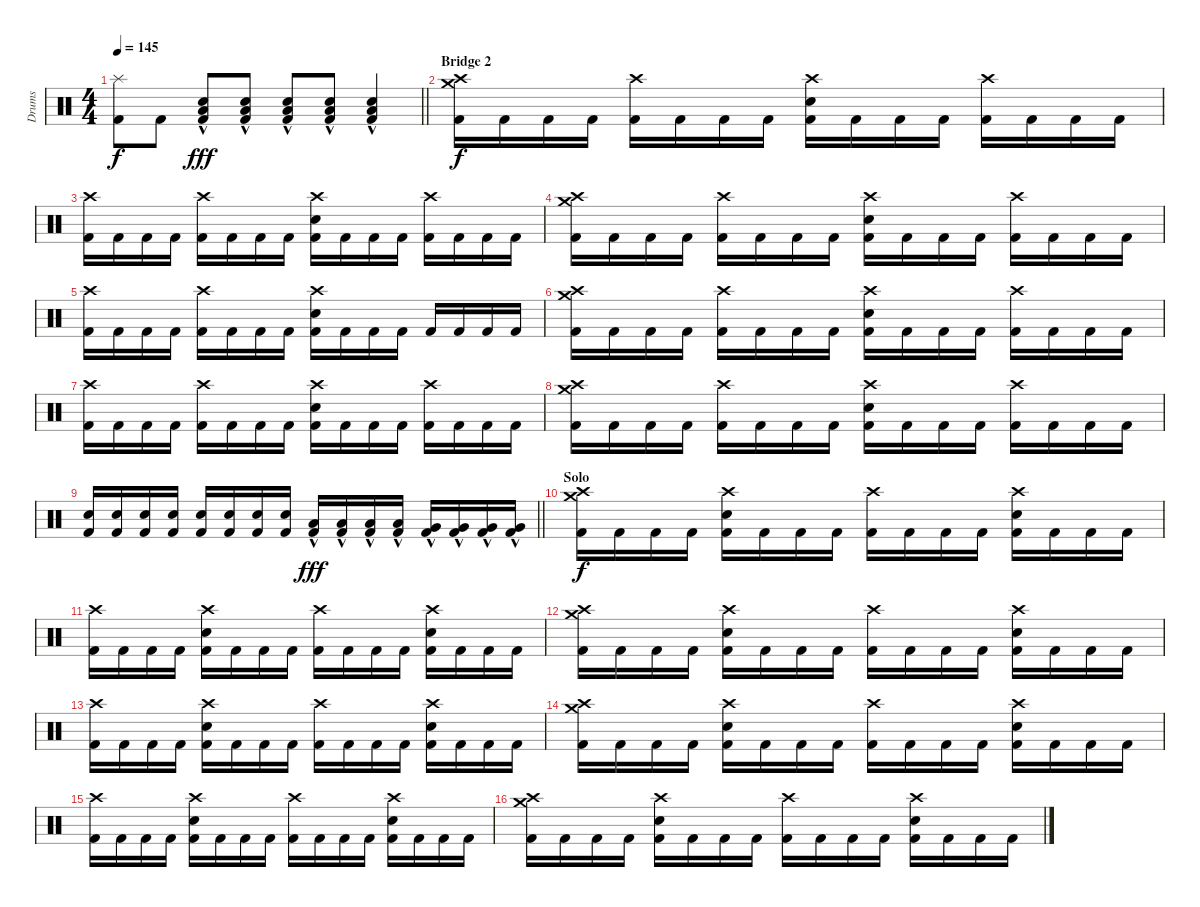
\track ("Drums" "Drums") {instrument percussion}
\staff {score}
\articulation defaults
\ts (4 4)
\tempo 145
\clef neutral
\barLineRight lightlight
\ks c
("Splash (hit)" "Kick (hit) 2").8{dy f} "Kick (hit) 2".8 ("Electric Snare (hit)" "Low Floor Tom (hit)"{hac} "Kick (hit) 2").8{dy fff} ("Electric Snare (hit)" "Low Floor Tom (hit)"{hac} "Kick (hit) 2").8 ("Electric Snare (hit)" "Low Floor Tom (hit)"{hac} "Kick (hit) 2").8 ("Electric Snare (hit)" "Low Floor Tom (hit)"{hac} "Kick (hit) 2").8 ("Electric Snare (hit)" "Low Floor Tom (hit)"{hac} "Kick (hit) 2").4 |
\section ("" "Bridge 2")
("Crash high (hit)" "Crash medium (hit)" "Kick (hit) 2").16{dy f} "Kick (hit) 2".16 "Kick (hit) 2".16 "Kick (hit) 2".16 ("Crash high (hit)" "Kick (hit) 2").16 "Kick (hit) 2".16 "Kick (hit) 2".16 "Kick (hit) 2".16 ("Crash high (hit)" "Electric Snare (hit)" "Kick (hit) 2").16 "Kick (hit) 2".16 "Kick (hit) 2".16 "Kick (hit) 2".16 ("Crash high (hit)" "Kick (hit) 2").16 "Kick (hit) 2".16 "Kick (hit) 2".16 "Kick (hit) 2".16 |
("Crash high (hit)" "Kick (hit) 2").16 "Kick (hit) 2".16 "Kick (hit) 2".16 "Kick (hit) 2".16 ("Crash high (hit)" "Kick (hit) 2").16 "Kick (hit) 2".16 "Kick (hit) 2".16 "Kick (hit) 2".16 ("Crash high (hit)" "Electric Snare (hit)" "Kick (hit) 2").16 "Kick (hit) 2".16 "Kick (hit) 2".16 "Kick (hit) 2".16 ("Crash high (hit)" "Kick (hit) 2").16 "Kick (hit) 2".16 "Kick (hit) 2".16 "Kick (hit) 2".16 |
("Crash high (hit)" "Crash medium (hit)" "Kick (hit) 2").16 "Kick (hit) 2".16 "Kick (hit) 2".16 "Kick (hit) 2".16 ("Crash high (hit)" "Kick (hit) 2").16 "Kick (hit) 2".16 "Kick (hit) 2".16 "Kick (hit) 2".16 ("Crash high (hit)" "Electric Snare (hit)" "Kick (hit) 2").16 "Kick (hit) 2".16 "Kick (hit) 2".16 "Kick (hit) 2".16 ("Crash high (hit)" "Kick (hit) 2").16 "Kick (hit) 2".16 "Kick (hit) 2".16 "Kick (hit) 2".16 |
("Crash high (hit)" "Kick (hit) 2").16 "Kick (hit) 2".16 "Kick (hit) 2".16 "Kick (hit) 2".16 ("Crash high (hit)" "Kick (hit) 2").16 "Kick (hit) 2".16 "Kick (hit) 2".16 "Kick (hit) 2".16 ("Crash high (hit)" "Electric Snare (hit)" "Kick (hit) 2").16 "Kick (hit) 2".16 "Kick (hit) 2".16 "Kick (hit) 2".16 "Kick (hit) 2".16 "Kick (hit) 2".16 "Kick (hit) 2".16 "Kick (hit) 2".16 |
("Crash high (hit)" "Crash medium (hit)" "Kick (hit) 2").16 "Kick (hit) 2".16 "Kick (hit) 2".16 "Kick (hit) 2".16 ("Crash high (hit)" "Kick (hit) 2").16 "Kick (hit) 2".16 "Kick (hit) 2".16 "Kick (hit) 2".16 ("Crash high (hit)" "Electric Snare (hit)" "Kick (hit) 2").16 "Kick (hit) 2".16 "Kick (hit) 2".16 "Kick (hit) 2".16 ("Crash high (hit)" "Kick (hit) 2").16 "Kick (hit) 2".16 "Kick (hit) 2".16 "Kick (hit) 2".16 |
("Crash high (hit)" "Kick (hit) 2").16 "Kick (hit) 2".16 "Kick (hit) 2".16 "Kick (hit) 2".16 ("Crash high (hit)" "Kick (hit) 2").16 "Kick (hit) 2".16 "Kick (hit) 2".16 "Kick (hit) 2".16 ("Crash high (hit)" "Electric Snare (hit)" "Kick (hit) 2").16 "Kick (hit) 2".16 "Kick (hit) 2".16 "Kick (hit) 2".16 ("Crash high (hit)" "Kick (hit) 2").16 "Kick (hit) 2".16 "Kick (hit) 2".16 "Kick (hit) 2".16 |
("Crash high (hit)" "Crash medium (hit)" "Kick (hit) 2").16 "Kick (hit) 2".16 "Kick (hit) 2".16 "Kick (hit) 2".16 ("Crash high (hit)" "Kick (hit) 2").16 "Kick (hit) 2".16 "Kick (hit) 2".16 "Kick (hit) 2".16 ("Crash high (hit)" "Electric Snare (hit)" "Kick (hit) 2").16 "Kick (hit) 2".16 "Kick (hit) 2".16 "Kick (hit) 2".16 ("Crash high (hit)" "Kick (hit) 2").16 "Kick (hit) 2".16 "Kick (hit) 2".16 "Kick (hit) 2".16 |
\barLineRight lightlight
("Electric Snare (hit)" "Kick (hit) 2").16 ("Electric Snare (hit)" "Kick (hit) 2").16 ("Electric Snare (hit)" "Kick (hit) 2").16 ("Electric Snare (hit)" "Kick (hit) 2").16 ("Electric Snare (hit)" "Kick (hit) 2").16 ("Electric Snare (hit)" "Kick (hit) 2").16 ("Electric Snare (hit)" "Kick (hit) 2").16 ("Electric Snare (hit)" "Kick (hit) 2").16 ("Low Tom (hit)"{hac} "Kick (hit) 2").16{dy fff} ("Low Tom (hit)"{hac} "Kick (hit) 2").16 ("Low Tom (hit)"{hac} "Kick (hit) 2").16 ("Low Tom (hit)"{hac} "Kick (hit) 2").16 ("Very Low Tom (hit)"{hac} "Kick (hit) 2").16 ("Very Low Tom (hit)"{hac} "Kick (hit) 2").16 ("Very Low Tom (hit)"{hac} "Kick (hit) 2").16 ("Very Low Tom (hit)"{hac} "Kick (hit) 2").16 |
\section ("" "Solo")
("Crash high (hit)" "Crash medium (hit)" "Kick (hit) 2").16{dy f} "Kick (hit) 2".16 "Kick (hit) 2".16 "Kick (hit) 2".16 ("Crash high (hit)" "Electric Snare (hit)" "Kick (hit) 2").16 "Kick (hit) 2".16 "Kick (hit) 2".16 "Kick (hit) 2".16 ("Crash high (hit)" "Kick (hit) 2").16 "Kick (hit) 2".16 "Kick (hit) 2".16 "Kick (hit) 2".16 ("Crash high (hit)" "Electric Snare (hit)" "Kick (hit) 2").16 "Kick (hit) 2".16 "Kick (hit) 2".16 "Kick (hit) 2".16 |
("Crash high (hit)" "Kick (hit) 2").16 "Kick (hit) 2".16 "Kick (hit) 2".16 "Kick (hit) 2".16 ("Crash high (hit)" "Electric Snare (hit)" "Kick (hit) 2").16 "Kick (hit) 2".16 "Kick (hit) 2".16 "Kick (hit) 2".16 ("Crash high (hit)" "Kick (hit) 2").16 "Kick (hit) 2".16 "Kick (hit) 2".16 "Kick (hit) 2".16 ("Crash high (hit)" "Electric Snare (hit)" "Kick (hit) 2").16 "Kick (hit) 2".16 "Kick (hit) 2".16 "Kick (hit) 2".16 |
("Crash high (hit)" "Crash medium (hit)" "Kick (hit) 2").16 "Kick (hit) 2".16 "Kick (hit) 2".16 "Kick (hit) 2".16 ("Crash high (hit)" "Electric Snare (hit)" "Kick (hit) 2").16 "Kick (hit) 2".16 "Kick (hit) 2".16 "Kick (hit) 2".16 ("Crash high (hit)" "Kick (hit) 2").16 "Kick (hit) 2".16 "Kick (hit) 2".16 "Kick (hit) 2".16 ("Crash high (hit)" "Electric Snare (hit)" "Kick (hit) 2").16 "Kick (hit) 2".16 "Kick (hit) 2".16 "Kick (hit) 2".16 |
("Crash high (hit)" "Kick (hit) 2").16 "Kick (hit) 2".16 "Kick (hit) 2".16 "Kick (hit) 2".16 ("Crash high (hit)" "Electric Snare (hit)" "Kick (hit) 2").16 "Kick (hit) 2".16 "Kick (hit) 2".16 "Kick (hit) 2".16 ("Crash high (hit)" "Kick (hit) 2").16 "Kick (hit) 2".16 "Kick (hit) 2".16 "Kick (hit) 2".16 ("Crash high (hit)" "Electric Snare (hit)" "Kick (hit) 2").16 "Kick (hit) 2".16 "Kick (hit) 2".16 "Kick (hit) 2".16 |
("Crash high (hit)" "Crash medium (hit)" "Kick (hit) 2").16 "Kick (hit) 2".16 "Kick (hit) 2".16 "Kick (hit) 2".16 ("Crash high (hit)" "Electric Snare (hit)" "Kick (hit) 2").16 "Kick (hit) 2".16 "Kick (hit) 2".16 "Kick (hit) 2".16 ("Crash high (hit)" "Kick (hit) 2").16 "Kick (hit) 2".16 "Kick (hit) 2".16 "Kick (hit) 2".16 ("Crash high (hit)" "Electric Snare (hit)" "Kick (hit) 2").16 "Kick (hit) 2".16 "Kick (hit) 2".16 "Kick (hit) 2".16 |
("Crash high (hit)" "Kick (hit) 2").16 "Kick (hit) 2".16 "Kick (hit) 2".16 "Kick (hit) 2".16 ("Crash high (hit)" "Electric Snare (hit)" "Kick (hit) 2").16 "Kick (hit) 2".16 "Kick (hit) 2".16 "Kick (hit) 2".16 ("Crash high (hit)" "Kick (hit) 2").16 "Kick (hit) 2".16 "Kick (hit) 2".16 "Kick (hit) 2".16 ("Crash high (hit)" "Electric Snare (hit)" "Kick (hit) 2").16 "Kick (hit) 2".16 "Kick (hit) 2".16 "Kick (hit) 2".16 |
("Crash high (hit)" "Crash medium (hit)" "Kick (hit) 2").16 "Kick (hit) 2".16 "Kick (hit) 2".16 "Kick (hit) 2".16 ("Crash high (hit)" "Electric Snare (hit)" "Kick (hit) 2").16 "Kick (hit) 2".16 "Kick (hit) 2".16 "Kick (hit) 2".16 ("Crash high (hit)" "Kick (hit) 2").16 "Kick (hit) 2".16 "Kick (hit) 2".16 "Kick (hit) 2".16 ("Crash high (hit)" "Electric Snare (hit)" "Kick (hit) 2").16 "Kick (hit) 2".16 "Kick (hit) 2".16 "Kick (hit) 2".16
